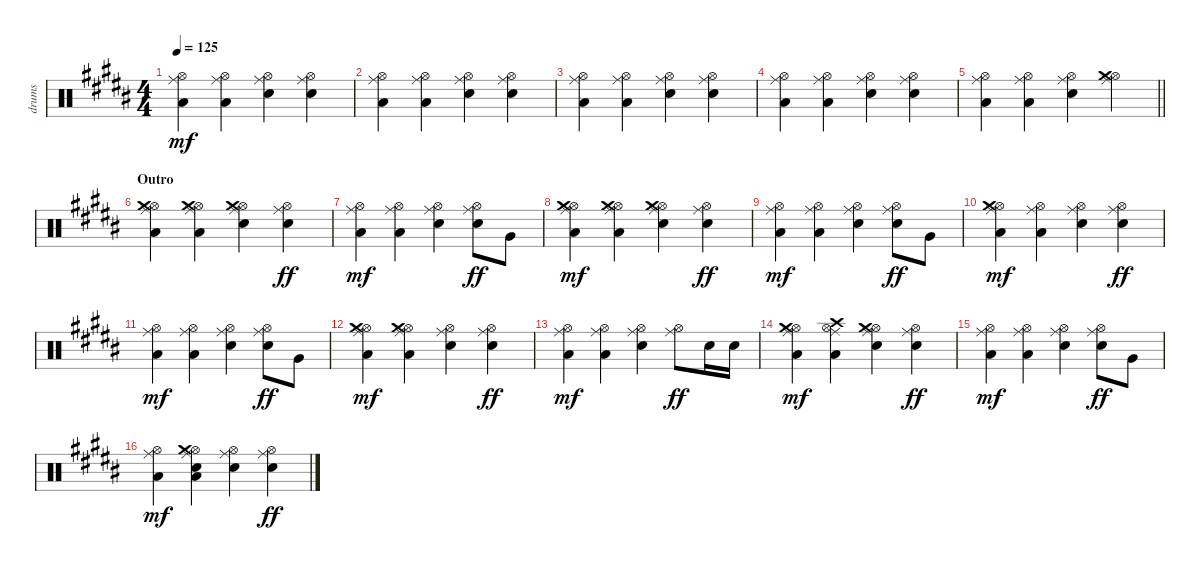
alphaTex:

\track ("drums" "drums") {instrument percussion}
\staff {score}
\articulation defaults
\ts (4 4)
\tempo 125
\clef neutral
\ks b
("Ride (middle)" "Hi-Hat (open)" "Low Floor Tom (hit)").4{dy mf} ("Ride (middle)" "Hi-Hat (open)" "Low Floor Tom (hit)").4 ("Ride (middle)" "Hi-Hat (open)" "Electric Snare (hit)").4 ("Ride (middle)" "Hi-Hat (open)" "Electric Snare (hit)").4 |
("Ride (middle)" "Hi-Hat (open)" "Low Floor Tom (hit)").4 ("Ride (middle)" "Hi-Hat (open)" "Low Floor Tom (hit)").4 ("Ride (middle)" "Hi-Hat (open)" "Electric Snare (hit)").4 ("Ride (middle)" "Hi-Hat (open)" "Electric Snare (hit)").4 |
("Ride (middle)" "Hi-Hat (open)" "Low Floor Tom (hit)").4 ("Ride (middle)" "Hi-Hat (open)" "Low Floor Tom (hit)").4 ("Ride (middle)" "Hi-Hat (open)" "Electric Snare (hit)").4 ("Ride (middle)" "Hi-Hat (open)" "Electric Snare (hit)").4 |
("Ride (middle)" "Hi-Hat (open)" "Low Floor Tom (hit)").4 ("Ride (middle)" "Hi-Hat (open)" "Low Floor Tom (hit)").4 ("Ride (middle)" "Hi-Hat (open)" "Electric Snare (hit)").4 ("Ride (middle)" "Hi-Hat (open)" "Electric Snare (hit)").4 |
\barLineRight lightlight
("Ride (middle)" "Hi-Hat (open)" "Low Floor Tom (hit)").4 ("Ride (middle)" "Hi-Hat (open)" "Low Floor Tom (hit)").4 ("Ride (middle)" "Hi-Hat (open)" "Electric Snare (hit)").4 ("Ride (middle)" "Hi-Hat (open)" "Crash medium (hit)").4 |
\section ("" "Outro")
("Ride (middle)" "Hi-Hat (open)" "Crash medium (hit)" "Low Floor Tom (hit)").4 ("Ride (middle)" "Hi-Hat (open)" "Crash medium (hit)" "Low Floor Tom (hit)").4 ("Ride (middle)" "Hi-Hat (open)" "Crash medium (hit)" "Electric Snare (hit)").4 ("Ride (middle)" "Hi-Hat (open)" "Electric Snare (hit)").4{dy ff} |
("Ride (middle)" "Hi-Hat (open)" "Low Floor Tom (hit)").4{dy mf} ("Ride (middle)" "Hi-Hat (open)" "Low Floor Tom (hit)").4 ("Ride (middle)" "Hi-Hat (open)" "Electric Snare (hit)").4 ("Ride (middle)" "Hi-Hat (open)" "Electric Snare (hit)").8{dy ff} "Very Low Tom (hit)".8 |
("Ride (middle)" "Hi-Hat (open)" "Crash medium (hit)" "Low Floor Tom (hit)").4{dy mf} ("Ride (middle)" "Hi-Hat (open)" "Crash medium (hit)" "Low Floor Tom (hit)").4 ("Ride (middle)" "Hi-Hat (open)" "Crash medium (hit)" "Electric Snare (hit)").4 ("Ride (middle)" "Hi-Hat (open)" "Electric Snare (hit)").4{dy ff} |
("Ride (middle)" "Hi-Hat (open)" "Low Floor Tom (hit)").4{dy mf} ("Ride (middle)" "Hi-Hat (open)" "Low Floor Tom (hit)").4 ("Ride (middle)" "Hi-Hat (open)" "Electric Snare (hit)").4 ("Ride (middle)" "Hi-Hat (open)" "Electric Snare (hit)").8{dy ff} "Very Low Tom (hit)".8 |
("Ride (middle)" "Hi-Hat (open)" "Crash medium (hit)" "Low Floor Tom (hit)").4{dy mf} ("Ride (middle)" "Hi-Hat (open)" "Low Floor Tom (hit)").4 ("Ride (middle)" "Hi-Hat (open)" "Electric Snare (hit)").4 ("Ride (middle)" "Hi-Hat (open)" "Electric Snare (hit)").4{dy ff} |
("Ride (middle)" "Hi-Hat (open)" "Low Floor Tom (hit)").4{dy mf} ("Ride (middle)" "Hi-Hat (open)" "Low Floor Tom (hit)").4 ("Ride (middle)" "Hi-Hat (open)" "Electric Snare (hit)").4 ("Ride (middle)" "Hi-Hat (open)" "Electric Snare (hit)").8{dy ff} "Very Low Tom (hit)".8 |
("Ride (middle)" "Hi-Hat (open)" "Crash medium (hit)" "Low Floor Tom (hit)").4{dy mf} ("Ride (middle)" "Hi-Hat (open)" "Crash medium (hit)" "Low Floor Tom (hit)").4 ("Ride (middle)" "Hi-Hat (open)" "Electric Snare (hit)").4 ("Ride (middle)" "Hi-Hat (open)" "Electric Snare (hit)").4{dy ff} |
("Ride (middle)" "Hi-Hat (open)" "Low Floor Tom (hit)").4{dy mf} ("Ride (middle)" "Hi-Hat (open)" "Low Floor Tom (hit)").4 ("Ride (middle)" "Hi-Hat (open)" "Electric Snare (hit)").4 ("Ride (middle)" "Hi-Hat (open)").8{dy ff} "Electric Snare (hit)".16 "Electric Snare (hit)".16 |
("Ride (middle)" "Hi-Hat (open)" "Crash medium (hit)" "Low Floor Tom (hit)").4{dy mf} ("Ride (middle)" "Hi-Hat (open)" "Crash high (hit)" "Low Floor Tom (hit)").4 ("Ride (middle)" "Hi-Hat (open)" "Crash medium (hit)" "Electric Snare (hit)").4 ("Ride (middle)" "Hi-Hat (open)" "Electric Snare (hit)").4{dy ff} |
("Ride (middle)" "Hi-Hat (open)" "Low Floor Tom (hit)").4{dy mf} ("Ride (middle)" "Hi-Hat (open)" "Low Floor Tom (hit)").4 ("Ride (middle)" "Hi-Hat (open)" "Electric Snare (hit)").4 ("Ride (middle)" "Hi-Hat (open)" "Electric Snare (hit)").8{dy ff} "Very Low Tom (hit)".8 |
("Ride (middle)" "Hi-Hat (open)" "Low Floor Tom (hit)").4{dy mf} ("Ride (middle)" "Hi-Hat (open)" "Crash medium (hit)" "Electric Snare (hit)" "Low Floor Tom (hit)").4 ("Ride (middle)" "Hi-Hat (open)" "Electric Snare (hit)").4 ("Ride (middle)" "Hi-Hat (open)" "Electric Snare (hit)").4{dy ff}
